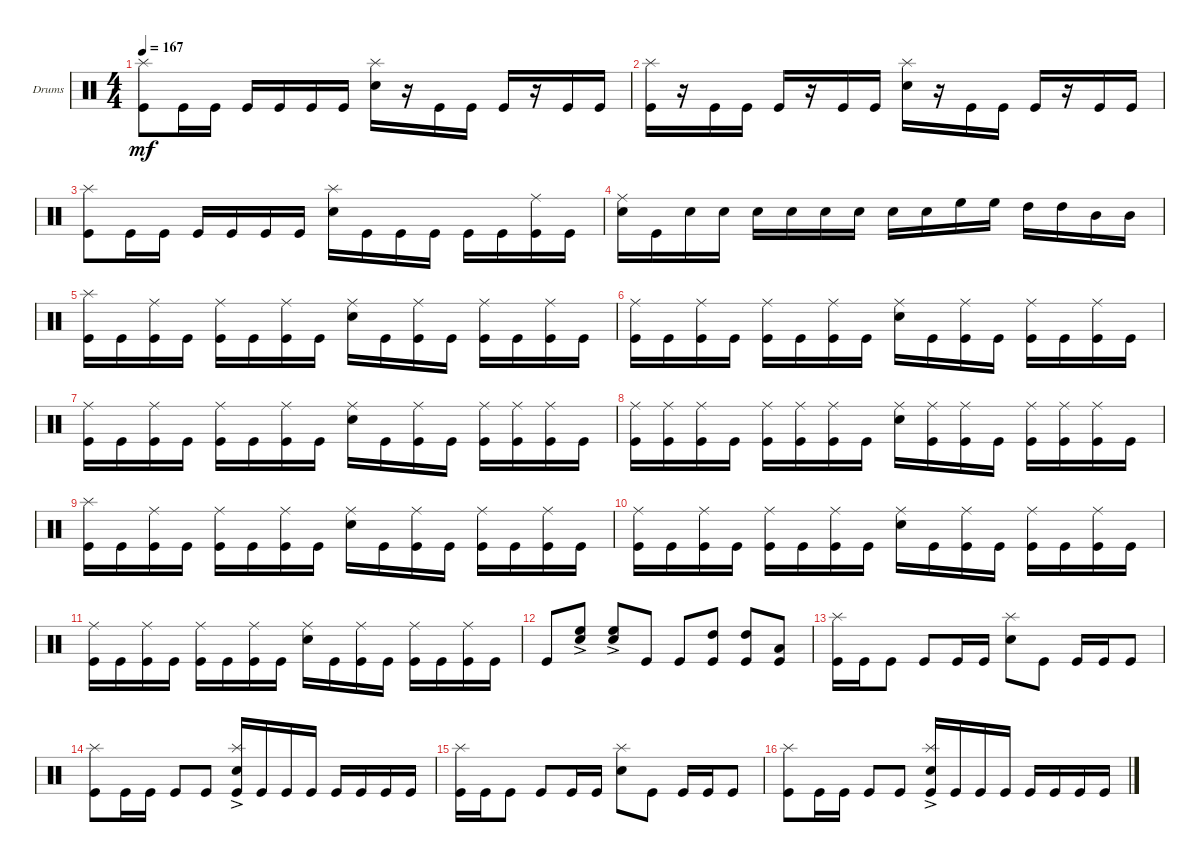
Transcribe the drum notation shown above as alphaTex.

\bracketExtendMode groupsimilarinstruments
\firstSystemTrackNameOrientation horizontal
\otherSystemsTrackNameOrientation horizontal
\track ("Drumkit" "Drums") {instrument percussion}
\staff {score}
\articulation defaults
\ts (4 4)
\tempo 167
\clef neutral
\ks c
("Kick (hit)" "Splash (hit)").8{dy mf} "Kick (hit)".16 "Kick (hit)".16 "Kick (hit)".16 "Kick (hit)".16 "Kick (hit)".16 "Kick (hit)".16 ("Snare (hit) 2" "Splash (hit)").16 r.16 "Kick (hit)".16 "Kick (hit)".16 "Kick (hit)".16 r.16 "Kick (hit)".16 "Kick (hit)".16 |
("Kick (hit)" "Splash (hit)").16 r.16 "Kick (hit)".16 "Kick (hit)".16 "Kick (hit)".16 r.16 "Kick (hit)".16 "Kick (hit)".16 ("Snare (hit) 2" "Splash (hit)").16 r.16 "Kick (hit)".16 "Kick (hit)".16 "Kick (hit)".16 r.16 "Kick (hit)".16 "Kick (hit)".16 |
("Kick (hit)" "Splash (hit)").8 "Kick (hit)".16 "Kick (hit)".16 "Kick (hit)".16 "Kick (hit)".16 "Kick (hit)".16 "Kick (hit)".16 ("Snare (hit) 2" "Splash (hit)").16 "Kick (hit)".16 "Kick (hit)".16 "Kick (hit)".16 "Kick (hit)".16 "Kick (hit)".16 ("Kick (hit)" "Ride (middle)").16 "Kick (hit)".16 |
("Snare (hit) 2" "Ride (middle)").16 "Kick (hit)".16 "Snare (hit) 2".16 "Snare (hit) 2".16 "Snare (hit) 2".16 "Snare (hit) 2".16 "Snare (hit) 2".16 "Snare (hit) 2".16 "Snare (hit) 2".16 "Snare (hit) 2".16 "High Floor Tom (hit)".16 "High Floor Tom (hit)".16 "High Tom (hit)".16 "High Tom (hit)".16 "Mid Tom (hit)".16 "Mid Tom (hit)".16 |
("Kick (hit)" "Splash (hit)").16 "Kick (hit)".16 ("Kick (hit)" "Ride (middle)").16 "Kick (hit)".16 ("Kick (hit)" "Ride (middle)").16 "Kick (hit)".16 ("Kick (hit)" "Ride (middle)").16 "Kick (hit)".16 ("Snare (hit) 2" "Ride (middle)").16 "Kick (hit)".16 ("Kick (hit)" "Ride (middle)").16 "Kick (hit)".16 ("Kick (hit)" "Ride (middle)").16 "Kick (hit)".16 ("Kick (hit)" "Ride (middle)").16 "Kick (hit)".16 |
("Kick (hit)" "Ride (middle)").16 "Kick (hit)".16 ("Kick (hit)" "Ride (middle)").16 "Kick (hit)".16 ("Kick (hit)" "Ride (middle)").16 "Kick (hit)".16 ("Kick (hit)" "Ride (middle)").16 "Kick (hit)".16 ("Snare (hit) 2" "Ride (middle)").16 "Kick (hit)".16 ("Kick (hit)" "Ride (middle)").16 "Kick (hit)".16 ("Kick (hit)" "Ride (middle)").16 "Kick (hit)".16 ("Kick (hit)" "Ride (middle)").16 "Kick (hit)".16 |
("Kick (hit)" "Ride (middle)").16 "Kick (hit)".16 ("Kick (hit)" "Ride (middle)").16 "Kick (hit)".16 ("Kick (hit)" "Ride (middle)").16 "Kick (hit)".16 ("Kick (hit)" "Ride (middle)").16 "Kick (hit)".16 ("Snare (hit) 2" "Ride (middle)").16 "Kick (hit)".16 ("Kick (hit)" "Ride (middle)").16 "Kick (hit)".16 ("Kick (hit)" "Ride (middle)").16 ("Kick (hit)" "Ride (middle)").16 ("Kick (hit)" "Ride (middle)").16 "Kick (hit)".16 |
("Kick (hit)" "Ride (middle)").16 ("Kick (hit)" "Ride (middle)").16 ("Kick (hit)" "Ride (middle)").16 "Kick (hit)".16 ("Kick (hit)" "Ride (middle)").16 ("Kick (hit)" "Ride (middle)").16 ("Kick (hit)" "Ride (middle)").16 "Kick (hit)".16 ("Snare (hit) 2" "Ride (middle)").16 ("Kick (hit)" "Ride (middle)").16 ("Kick (hit)" "Ride (middle)").16 "Kick (hit)".16 ("Kick (hit)" "Ride (middle)").16 ("Kick (hit)" "Ride (middle)").16 ("Kick (hit)" "Ride (middle)").16 "Kick (hit)".16 |
("Kick (hit)" "Splash (hit)").16 "Kick (hit)".16 ("Kick (hit)" "Ride (middle)").16 "Kick (hit)".16 ("Kick (hit)" "Ride (middle)").16 "Kick (hit)".16 ("Kick (hit)" "Ride (middle)").16 "Kick (hit)".16 ("Snare (hit) 2" "Ride (middle)").16 "Kick (hit)".16 ("Kick (hit)" "Ride (middle)").16 "Kick (hit)".16 ("Kick (hit)" "Ride (middle)").16 "Kick (hit)".16 ("Kick (hit)" "Ride (middle)").16 "Kick (hit)".16 |
("Kick (hit)" "Ride (middle)").16 "Kick (hit)".16 ("Kick (hit)" "Ride (middle)").16 "Kick (hit)".16 ("Kick (hit)" "Ride (middle)").16 "Kick (hit)".16 ("Kick (hit)" "Ride (middle)").16 "Kick (hit)".16 ("Snare (hit) 2" "Ride (middle)").16 "Kick (hit)".16 ("Kick (hit)" "Ride (middle)").16 "Kick (hit)".16 ("Kick (hit)" "Ride (middle)").16 "Kick (hit)".16 ("Kick (hit)" "Ride (middle)").16 "Kick (hit)".16 |
("Kick (hit)" "Ride (middle)").16 "Kick (hit)".16 ("Kick (hit)" "Ride (middle)").16 "Kick (hit)".16 ("Kick (hit)" "Ride (middle)").16 "Kick (hit)".16 ("Kick (hit)" "Ride (middle)").16 "Kick (hit)".16 ("Snare (hit) 2" "Ride (middle)").16 "Kick (hit)".16 ("Kick (hit)" "Ride (middle)").16 "Kick (hit)".16 ("Kick (hit)" "Ride (middle)").16 "Kick (hit)".16 ("Kick (hit)" "Ride (middle)").16 "Kick (hit)".16 |
"Kick (hit)".8 ("Snare (hit) 2"{ac} "High Floor Tom (hit)"{ac}).8 ("Snare (hit) 2"{ac} "High Floor Tom (hit)"{ac}).8 "Kick (hit)".8 "Kick (hit)".8 ("Kick (hit)" "High Tom (hit)").8 ("Kick (hit)" "High Tom (hit)").8 ("Kick (hit)" "Low Tom (hit)").8 |
("Kick (hit)" "Splash (hit)").16 "Kick (hit)".16 "Kick (hit)".8 "Kick (hit)".8 "Kick (hit)".16 "Kick (hit)".16 ("Snare (hit) 2" "Splash (hit)").8 "Kick (hit)".8 "Kick (hit)".16 "Kick (hit)".16 "Kick (hit)".8 |
("Kick (hit)" "Splash (hit)").8 "Kick (hit)".16 "Kick (hit)".16 "Kick (hit)".8 "Kick (hit)".8 ("Snare (hit) 2"{ac} "Kick (hit)" "Splash (hit)").16 "Kick (hit)".16 "Kick (hit)".16 "Kick (hit)".16 "Kick (hit)".16 "Kick (hit)".16 "Kick (hit)".16 "Kick (hit)".16 |
("Kick (hit)" "Splash (hit)").16 "Kick (hit)".16 "Kick (hit)".8 "Kick (hit)".8 "Kick (hit)".16 "Kick (hit)".16 ("Snare (hit) 2" "Splash (hit)").8 "Kick (hit)".8 "Kick (hit)".16 "Kick (hit)".16 "Kick (hit)".8 |
("Kick (hit)" "Splash (hit)").8 "Kick (hit)".16 "Kick (hit)".16 "Kick (hit)".8 "Kick (hit)".8 ("Snare (hit) 2"{ac} "Kick (hit)" "Splash (hit)").16 "Kick (hit)".16 "Kick (hit)".16 "Kick (hit)".16 "Kick (hit)".16 "Kick (hit)".16 "Kick (hit)".16 "Kick (hit)".16
